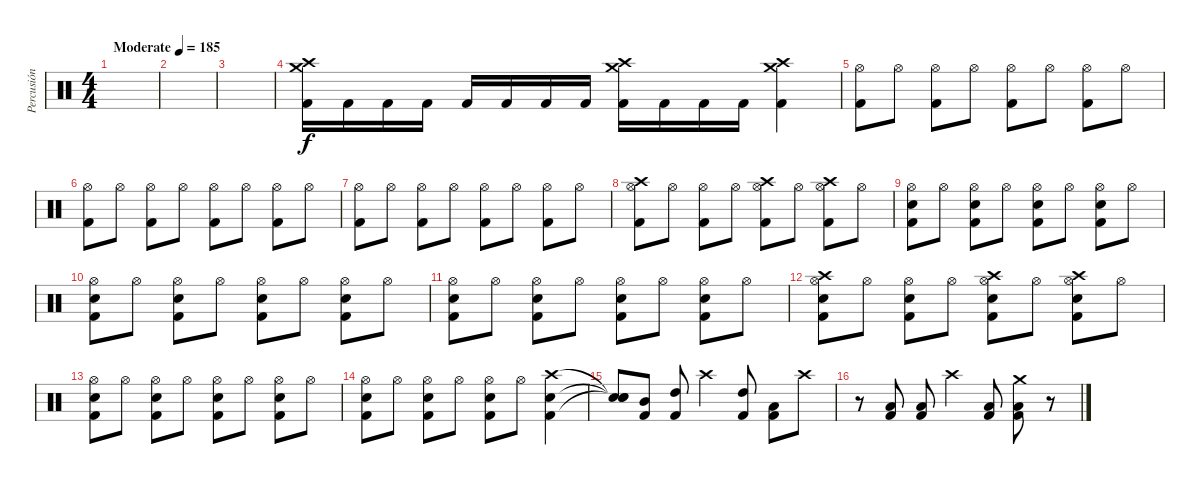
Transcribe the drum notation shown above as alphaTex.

\track ("Percusión" "Percusión") {instrument percussion}
\staff {score}
\articulation defaults
\ts (4 4)
\tempo (185 "Moderate")
\clef neutral
\ks c
|
|
|
("Crash high (hit)" "Crash medium (hit)" "Kick (hit) 2").16 "Kick (hit) 2".16 "Kick (hit) 2".16 "Kick (hit) 2".16 "Kick (hit) 2".16 "Kick (hit) 2".16 "Kick (hit) 2".16 "Kick (hit) 2".16 ("Crash high (hit)" "Crash medium (hit)" "Kick (hit) 2").16 "Kick (hit) 2".16 "Kick (hit) 2".16 "Kick (hit) 2".16 ("Crash high (hit)" "Crash medium (hit)" "Kick (hit) 2").4 |
("Hi-Hat (open)" "Kick (hit) 2").8{dy f} "Hi-Hat (open)".8 ("Hi-Hat (open)" "Kick (hit) 2").8 "Hi-Hat (open)".8 ("Hi-Hat (open)" "Kick (hit) 2").8 "Hi-Hat (open)".8 ("Hi-Hat (open)" "Kick (hit) 2").8 "Hi-Hat (open)".8 |
("Hi-Hat (open)" "Kick (hit) 2").8 "Hi-Hat (open)".8 ("Hi-Hat (open)" "Kick (hit) 2").8 "Hi-Hat (open)".8 ("Hi-Hat (open)" "Kick (hit) 2").8 "Hi-Hat (open)".8 ("Hi-Hat (open)" "Kick (hit) 2").8 "Hi-Hat (open)".8 |
("Hi-Hat (open)" "Kick (hit) 2").8 "Hi-Hat (open)".8 ("Hi-Hat (open)" "Kick (hit) 2").8 "Hi-Hat (open)".8 ("Hi-Hat (open)" "Kick (hit) 2").8 "Hi-Hat (open)".8 ("Hi-Hat (open)" "Kick (hit) 2").8 "Hi-Hat (open)".8 |
("Crash high (hit)" "Hi-Hat (open)" "Kick (hit) 2").8 "Hi-Hat (open)".8 ("Hi-Hat (open)" "Kick (hit) 2").8 "Hi-Hat (open)".8 ("Crash high (hit)" "Hi-Hat (open)" "Kick (hit) 2").8 "Hi-Hat (open)".8 ("Crash high (hit)" "Hi-Hat (open)" "Kick (hit) 2").8 "Hi-Hat (open)".8 |
("Hi-Hat (open)" "Snare (hit) 2" "Kick (hit) 2").8 "Hi-Hat (open)".8 ("Hi-Hat (open)" "Snare (hit) 2" "Kick (hit) 2").8 "Hi-Hat (open)".8 ("Hi-Hat (open)" "Snare (hit) 2" "Kick (hit) 2").8 "Hi-Hat (open)".8 ("Hi-Hat (open)" "Snare (hit) 2" "Kick (hit) 2").8 "Hi-Hat (open)".8 |
("Hi-Hat (open)" "Snare (hit) 2" "Kick (hit) 2").8 "Hi-Hat (open)".8 ("Hi-Hat (open)" "Snare (hit) 2" "Kick (hit) 2").8 "Hi-Hat (open)".8 ("Hi-Hat (open)" "Snare (hit) 2" "Kick (hit) 2").8 "Hi-Hat (open)".8 ("Hi-Hat (open)" "Snare (hit) 2" "Kick (hit) 2").8 "Hi-Hat (open)".8 |
("Hi-Hat (open)" "Snare (hit) 2" "Kick (hit) 2").8 "Hi-Hat (open)".8 ("Hi-Hat (open)" "Snare (hit) 2" "Kick (hit) 2").8 "Hi-Hat (open)".8 ("Hi-Hat (open)" "Snare (hit) 2" "Kick (hit) 2").8 "Hi-Hat (open)".8 ("Hi-Hat (open)" "Snare (hit) 2" "Kick (hit) 2").8 "Hi-Hat (open)".8 |
("Crash high (hit)" "Hi-Hat (open)" "Snare (hit) 2" "Kick (hit) 2").8 "Hi-Hat (open)".8 ("Hi-Hat (open)" "Snare (hit) 2" "Kick (hit) 2").8 "Hi-Hat (open)".8 ("Crash high (hit)" "Hi-Hat (open)" "Snare (hit) 2" "Kick (hit) 2").8 "Hi-Hat (open)".8 ("Crash high (hit)" "Hi-Hat (open)" "Snare (hit) 2" "Kick (hit) 2").8 "Hi-Hat (open)".8 |
("Hi-Hat (open)" "Snare (hit) 2" "Kick (hit) 2").8 "Hi-Hat (open)".8 ("Hi-Hat (open)" "Snare (hit) 2" "Kick (hit) 2").8 "Hi-Hat (open)".8 ("Hi-Hat (open)" "Snare (hit) 2" "Kick (hit) 2").8 "Hi-Hat (open)".8 ("Hi-Hat (open)" "Snare (hit) 2" "Kick (hit) 2").8 "Hi-Hat (open)".8 |
("Hi-Hat (open)" "Snare (hit) 2" "Kick (hit) 2").8 "Hi-Hat (open)".8 ("Hi-Hat (open)" "Snare (hit) 2" "Kick (hit) 2").8 "Hi-Hat (open)".8 ("Hi-Hat (open)" "Snare (hit) 2" "Kick (hit) 2").8 "Hi-Hat (open)".8 ("Crash high (hit)" "Snare (hit) 2" "Kick (hit) 2").4 |
("Snare (hit)"{t} "Snare (hit)"{t} "Snare (hit)"{t}).8 ("Mid Tom (hit)" "Kick (hit) 2").8 ("High Tom (hit)" "Kick (hit) 2").8 "Crash high (hit)".4 ("High Tom (hit)" "Kick (hit) 2").8 ("Low Tom (hit)" "Kick (hit) 2").8 "Crash high (hit)".8 |
r.8 ("Low Tom (hit)" "Kick (hit) 2").8 ("Low Floor Tom (hit)" "Kick (hit) 2").8 "Crash high (hit)".4 ("Low Floor Tom (hit)" "Kick (hit) 2").8 ("Crash medium (hit)" "Low Tom (hit)" "Kick (hit) 2").8 r.8
